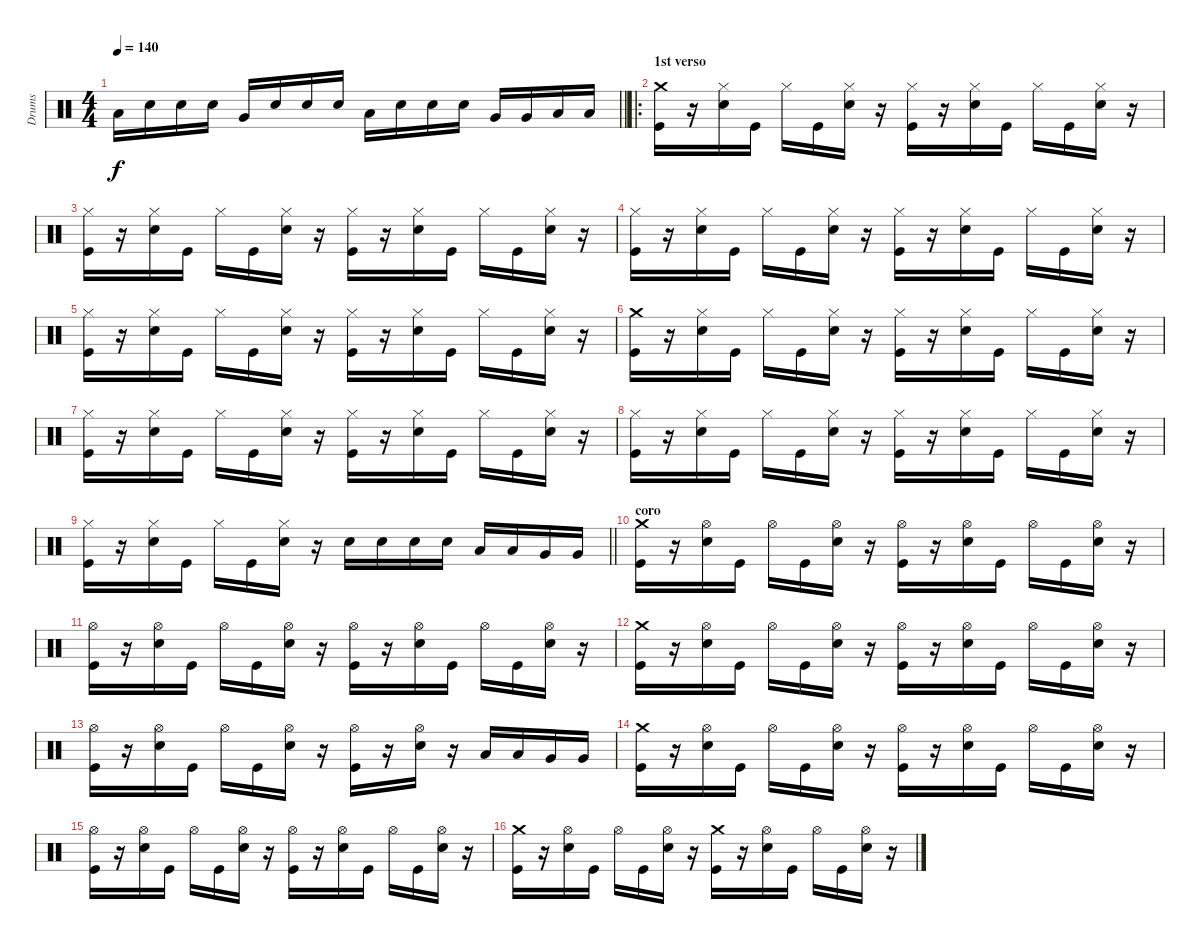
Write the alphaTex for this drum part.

\track ("Drums" "Drums") {instrument percussion}
\staff {score}
\articulation defaults
\ts (4 4)
\tempo 140
\clef neutral
\barLineRight lightlight
\ks c "Low Tom (hit)".16{dy f} "Snare (hit) 2".16 "Snare (hit) 2".16 "Snare (hit) 2".16 "Very Low Tom (hit)".16 "Snare (hit) 2".16 "Snare (hit) 2".16 "Snare (hit) 2".16 "Low Floor Tom (hit)".16 "Snare (hit) 2".16 "Snare (hit) 2".16 "Snare (hit) 2".16 "Very Low Tom (hit)".16 "Very Low Tom (hit)".16 "Low Floor Tom (hit)".16 "Low Floor Tom (hit)".16
|
\ro
\section ("" "1st verso")
("Crash medium (hit)" "Kick (hit)").16 r.16 ("Hi-Hat (closed)" "Snare (hit) 2").16 "Kick (hit)".16 "Hi-Hat (closed)".16 "Kick (hit)".16 ("Hi-Hat (closed)" "Snare (hit) 2").16 r.16 ("Hi-Hat (closed)" "Kick (hit)").16 r.16 ("Hi-Hat (closed)" "Snare (hit) 2").16 "Kick (hit)".16 "Hi-Hat (closed)".16 "Kick (hit)".16 ("Hi-Hat (closed)" "Snare (hit) 2").16 r.16 |
("Hi-Hat (closed)" "Kick (hit)").16 r.16 ("Hi-Hat (closed)" "Snare (hit) 2").16 "Kick (hit)".16 "Hi-Hat (closed)".16 "Kick (hit)".16 ("Hi-Hat (closed)" "Snare (hit) 2").16 r.16 ("Hi-Hat (closed)" "Kick (hit)").16 r.16 ("Hi-Hat (closed)" "Snare (hit) 2").16 "Kick (hit)".16 "Hi-Hat (closed)".16 "Kick (hit)".16 ("Hi-Hat (closed)" "Snare (hit) 2").16 r.16 |
("Hi-Hat (closed)" "Kick (hit)").16 r.16 ("Hi-Hat (closed)" "Snare (hit) 2").16 "Kick (hit)".16 "Hi-Hat (closed)".16 "Kick (hit)".16 ("Hi-Hat (closed)" "Snare (hit) 2").16 r.16 ("Hi-Hat (closed)" "Kick (hit)").16 r.16 ("Hi-Hat (closed)" "Snare (hit) 2").16 "Kick (hit)".16 "Hi-Hat (closed)".16 "Kick (hit)".16 ("Hi-Hat (closed)" "Snare (hit) 2").16 r.16 |
("Hi-Hat (closed)" "Kick (hit)").16 r.16 ("Hi-Hat (closed)" "Snare (hit) 2").16 "Kick (hit)".16 "Hi-Hat (closed)".16 "Kick (hit)".16 ("Hi-Hat (closed)" "Snare (hit) 2").16 r.16 ("Hi-Hat (closed)" "Kick (hit)").16 r.16 ("Hi-Hat (closed)" "Snare (hit) 2").16 "Kick (hit)".16 "Hi-Hat (closed)".16 "Kick (hit)".16 ("Hi-Hat (closed)" "Snare (hit) 2").16 r.16 |
("Crash medium (hit)" "Kick (hit)").16 r.16 ("Hi-Hat (closed)" "Snare (hit) 2").16 "Kick (hit)".16 "Hi-Hat (closed)".16 "Kick (hit)".16 ("Hi-Hat (closed)" "Snare (hit) 2").16 r.16 ("Hi-Hat (closed)" "Kick (hit)").16 r.16 ("Hi-Hat (closed)" "Snare (hit) 2").16 "Kick (hit)".16 "Hi-Hat (closed)".16 "Kick (hit)".16 ("Hi-Hat (closed)" "Snare (hit) 2").16 r.16 |
("Hi-Hat (closed)" "Kick (hit)").16 r.16 ("Hi-Hat (closed)" "Snare (hit) 2").16 "Kick (hit)".16 "Hi-Hat (closed)".16 "Kick (hit)".16 ("Hi-Hat (closed)" "Snare (hit) 2").16 r.16 ("Hi-Hat (closed)" "Kick (hit)").16 r.16 ("Hi-Hat (closed)" "Snare (hit) 2").16 "Kick (hit)".16 "Hi-Hat (closed)".16 "Kick (hit)".16 ("Hi-Hat (closed)" "Snare (hit) 2").16 r.16 |
("Hi-Hat (closed)" "Kick (hit)").16 r.16 ("Hi-Hat (closed)" "Snare (hit) 2").16 "Kick (hit)".16 "Hi-Hat (closed)".16 "Kick (hit)".16 ("Hi-Hat (closed)" "Snare (hit) 2").16 r.16 ("Hi-Hat (closed)" "Kick (hit)").16 r.16 ("Hi-Hat (closed)" "Snare (hit) 2").16 "Kick (hit)".16 "Hi-Hat (closed)".16 "Kick (hit)".16 ("Hi-Hat (closed)" "Snare (hit) 2").16 r.16 |
\barLineRight lightlight
("Hi-Hat (closed)" "Kick (hit)").16 r.16 ("Hi-Hat (closed)" "Snare (hit) 2").16 "Kick (hit)".16 "Hi-Hat (closed)".16 "Kick (hit)".16 ("Hi-Hat (closed)" "Snare (hit) 2").16 r.16 "Snare (hit) 2".16 "Snare (hit) 2".16 "Snare (hit) 2".16 "Snare (hit) 2".16 "Low Tom (hit)".16 "Low Tom (hit)".16 "Very Low Tom (hit)".16 "Very Low Tom (hit)".16 |
\section ("" "coro")
("Crash medium (hit)" "Kick (hit)").16 r.16 ("Hi-Hat (open)" "Snare (hit) 2").16 "Kick (hit)".16 "Hi-Hat (open)".16 "Kick (hit)".16 ("Hi-Hat (open)" "Snare (hit) 2").16 r.16 ("Hi-Hat (open)" "Kick (hit)").16 r.16 ("Hi-Hat (open)" "Snare (hit) 2").16 "Kick (hit)".16 "Hi-Hat (open)".16 "Kick (hit)".16 ("Hi-Hat (open)" "Snare (hit) 2").16 r.16 |
("Hi-Hat (open)" "Kick (hit)").16 r.16 ("Hi-Hat (open)" "Snare (hit) 2").16 "Kick (hit)".16 "Hi-Hat (open)".16 "Kick (hit)".16 ("Hi-Hat (open)" "Snare (hit) 2").16 r.16 ("Hi-Hat (open)" "Kick (hit)").16 r.16 ("Hi-Hat (open)" "Snare (hit) 2").16 "Kick (hit)".16 "Hi-Hat (open)".16 "Kick (hit)".16 ("Hi-Hat (open)" "Snare (hit) 2").16 r.16 |
("Crash medium (hit)" "Kick (hit)").16 r.16 ("Hi-Hat (open)" "Snare (hit) 2").16 "Kick (hit)".16 "Hi-Hat (open)".16 "Kick (hit)".16 ("Hi-Hat (open)" "Snare (hit) 2").16 r.16 ("Hi-Hat (open)" "Kick (hit)").16 r.16 ("Hi-Hat (open)" "Snare (hit) 2").16 "Kick (hit)".16 "Hi-Hat (open)".16 "Kick (hit)".16 ("Hi-Hat (open)" "Snare (hit) 2").16 r.16 |
("Hi-Hat (open)" "Kick (hit)").16 r.16 ("Hi-Hat (open)" "Snare (hit) 2").16 "Kick (hit)".16 "Hi-Hat (open)".16 "Kick (hit)".16 ("Hi-Hat (open)" "Snare (hit) 2").16 r.16 ("Hi-Hat (open)" "Kick (hit)").16 r.16 ("Hi-Hat (open)" "Snare (hit) 2").16 r.16 "Low Tom (hit)".16 "Low Tom (hit)".16 "Very Low Tom (hit)".16 "Very Low Tom (hit)".16 |
("Crash medium (hit)" "Kick (hit)").16 r.16 ("Hi-Hat (open)" "Snare (hit) 2").16 "Kick (hit)".16 "Hi-Hat (open)".16 "Kick (hit)".16 ("Hi-Hat (open)" "Snare (hit) 2").16 r.16 ("Hi-Hat (open)" "Kick (hit)").16 r.16 ("Hi-Hat (open)" "Snare (hit) 2").16 "Kick (hit)".16 "Hi-Hat (open)".16 "Kick (hit)".16 ("Hi-Hat (open)" "Snare (hit) 2").16 r.16 |
("Hi-Hat (open)" "Kick (hit)").16 r.16 ("Hi-Hat (open)" "Snare (hit) 2").16 "Kick (hit)".16 "Hi-Hat (open)".16 "Kick (hit)".16 ("Hi-Hat (open)" "Snare (hit) 2").16 r.16 ("Hi-Hat (open)" "Kick (hit)").16 r.16 ("Hi-Hat (open)" "Snare (hit) 2").16 "Kick (hit)".16 "Hi-Hat (open)".16 "Kick (hit)".16 ("Hi-Hat (open)" "Snare (hit) 2").16 r.16 |
("Crash medium (hit)" "Kick (hit)").16 r.16 ("Hi-Hat (open)" "Snare (hit) 2").16 "Kick (hit)".16 "Hi-Hat (open)".16 "Kick (hit)".16 ("Hi-Hat (open)" "Snare (hit) 2").16 r.16 ("Crash medium (hit)" "Kick (hit)").16 r.16 ("Hi-Hat (open)" "Snare (hit) 2").16 "Kick (hit)".16 "Hi-Hat (open)".16 "Kick (hit)".16 ("Hi-Hat (open)" "Snare (hit) 2").16 r.16
